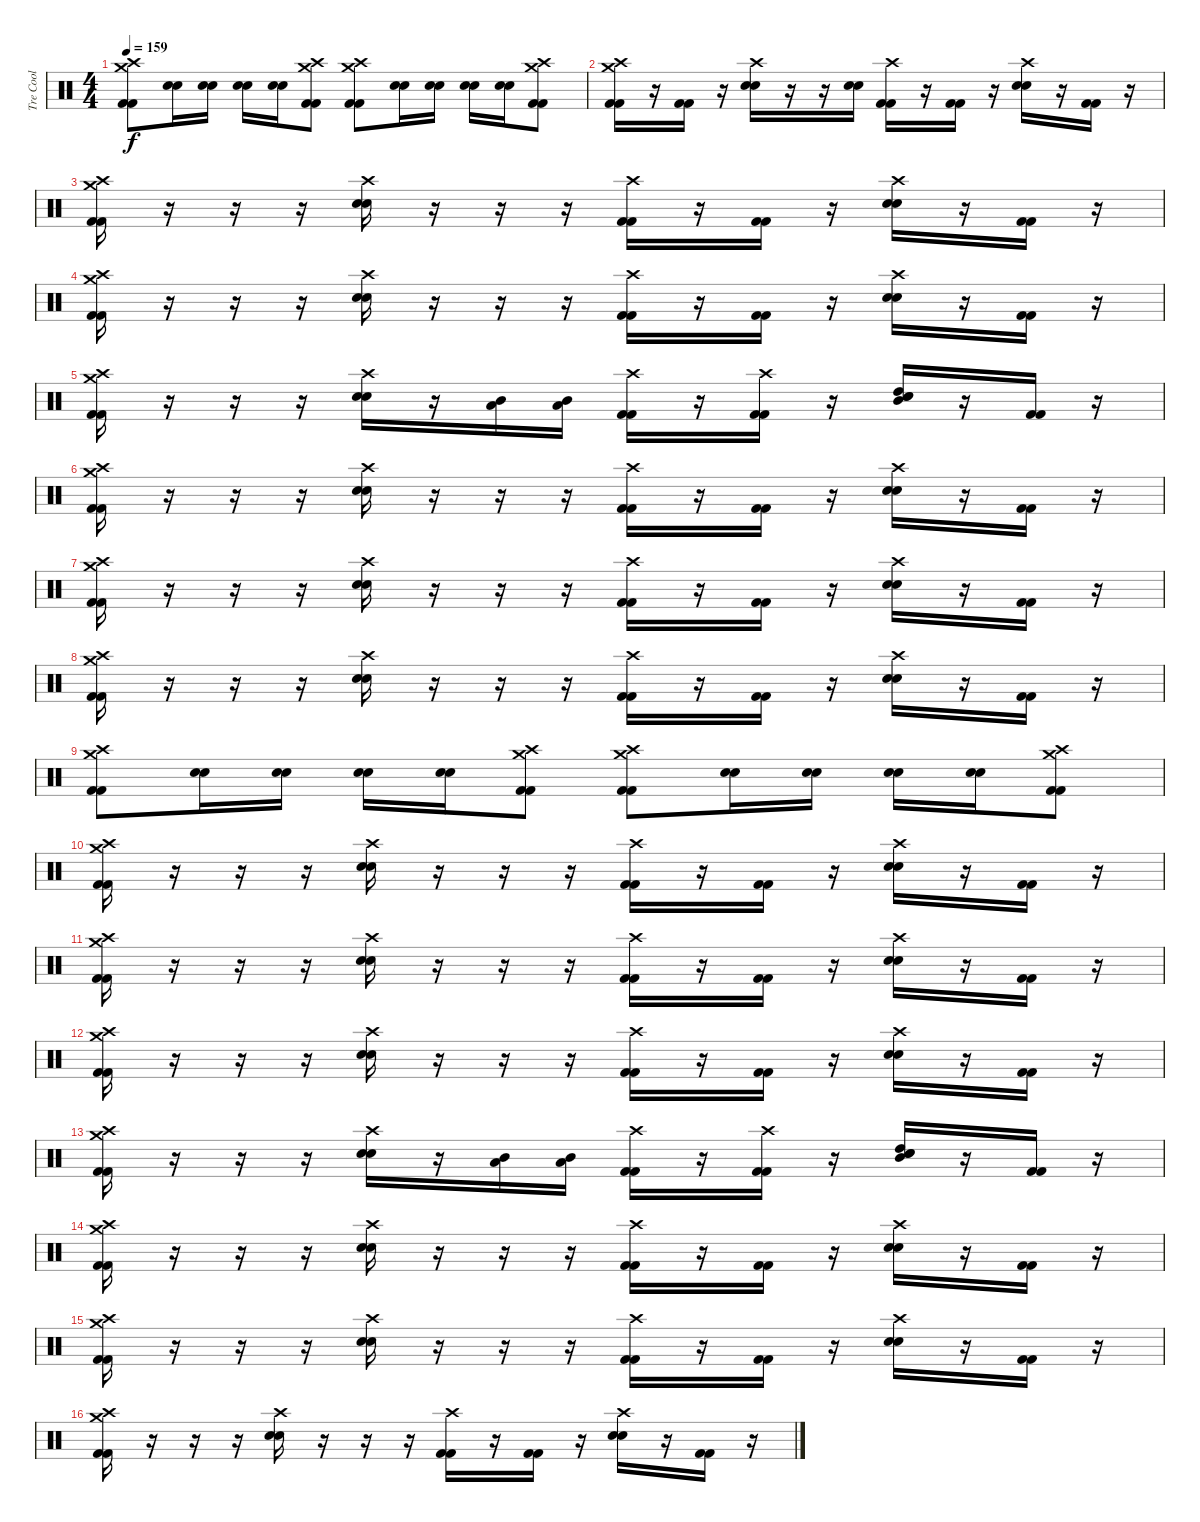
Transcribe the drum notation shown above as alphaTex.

\track ("Tre Cool" "Tre Cool") {instrument percussion}
\staff {score}
\articulation defaults
\ts (4 4)
\tempo 159
\clef neutral
\ks c
("Crash medium (hit)" "Crash high (hit)" "Kick (hit) 2" "Kick (hit) 2").8{dy f} ("Snare (hit) 2" "Snare (hit) 2").16 ("Snare (hit) 2" "Snare (hit) 2").16 ("Snare (hit) 2" "Snare (hit) 2").16 ("Snare (hit) 2" "Snare (hit) 2").16 ("Crash high (hit)" "Crash medium (hit)" "Kick (hit) 2" "Kick (hit) 2").8 ("Crash medium (hit)" "Crash high (hit)" "Kick (hit) 2" "Kick (hit) 2").8 ("Snare (hit) 2" "Snare (hit) 2").16 ("Snare (hit) 2" "Snare (hit) 2").16 ("Snare (hit) 2" "Snare (hit) 2").16 ("Snare (hit) 2" "Snare (hit) 2").16 ("Crash medium (hit)" "Crash high (hit)" "Kick (hit) 2" "Kick (hit) 2").8 |
("Crash high (hit)" "Crash medium (hit)" "Kick (hit) 2" "Kick (hit) 2").16 r.16 ("Kick (hit) 2" "Kick (hit) 2").16 r.16 ("Crash high (hit)" "Snare (hit) 2" "Snare (hit) 2").16 r.16 r.16 ("Snare (hit) 2" "Snare (hit) 2").16 ("Crash high (hit)" "Kick (hit) 2" "Kick (hit) 2").16 r.16 ("Kick (hit) 2" "Kick (hit) 2").16 r.16 ("Crash high (hit)" "Snare (hit) 2" "Snare (hit) 2").16 r.16 ("Kick (hit) 2" "Kick (hit) 2").16 r.16 |
("Crash high (hit)" "Crash medium (hit)" "Kick (hit) 2" "Kick (hit) 2").16 r.16 r.16 r.16 ("Crash high (hit)" "Snare (hit) 2" "Snare (hit) 2").16 r.16 r.16 r.16 ("Crash high (hit)" "Kick (hit) 2" "Kick (hit) 2").16 r.16 ("Kick (hit) 2" "Kick (hit) 2").16 r.16 ("Crash high (hit)" "Snare (hit) 2" "Snare (hit) 2").16 r.16 ("Kick (hit) 2" "Kick (hit) 2").16 r.16 |
("Crash high (hit)" "Crash medium (hit)" "Kick (hit) 2" "Kick (hit) 2").16 r.16 r.16 r.16 ("Crash high (hit)" "Snare (hit) 2" "Snare (hit) 2").16 r.16 r.16 r.16 ("Crash high (hit)" "Kick (hit) 2" "Kick (hit) 2").16 r.16 ("Kick (hit) 2" "Kick (hit) 2").16 r.16 ("Crash high (hit)" "Snare (hit) 2" "Snare (hit) 2").16 r.16 ("Kick (hit) 2" "Kick (hit) 2").16 r.16 |
("Crash high (hit)" "Crash medium (hit)" "Kick (hit) 2" "Kick (hit) 2").16 r.16 r.16 r.16 ("Crash high (hit)" "Snare (hit) 2" "Snare (hit) 2").16 r.16 ("Mid Tom (hit)" "Low Tom (hit)").16 ("Mid Tom (hit)" "Low Tom (hit)").16 ("Crash high (hit)" "Kick (hit) 2" "Kick (hit) 2").16 r.16 ("Crash high (hit)" "Kick (hit) 2" "Kick (hit) 2").16 r.16 ("Mid Tom (hit)" "High Tom (hit)" "Snare (hit) 2" "Snare (hit) 2").16 r.16 ("Kick (hit) 2" "Kick (hit) 2").16 r.16 |
("Crash high (hit)" "Crash medium (hit)" "Kick (hit) 2" "Kick (hit) 2").16 r.16 r.16 r.16 ("Crash high (hit)" "Snare (hit) 2" "Snare (hit) 2").16 r.16 r.16 r.16 ("Crash high (hit)" "Kick (hit) 2" "Kick (hit) 2").16 r.16 ("Kick (hit) 2" "Kick (hit) 2").16 r.16 ("Crash high (hit)" "Snare (hit) 2" "Snare (hit) 2").16 r.16 ("Kick (hit) 2" "Kick (hit) 2").16 r.16 |
("Crash high (hit)" "Crash medium (hit)" "Kick (hit) 2" "Kick (hit) 2").16 r.16 r.16 r.16 ("Crash high (hit)" "Snare (hit) 2" "Snare (hit) 2").16 r.16 r.16 r.16 ("Crash high (hit)" "Kick (hit) 2" "Kick (hit) 2").16 r.16 ("Kick (hit) 2" "Kick (hit) 2").16 r.16 ("Crash high (hit)" "Snare (hit) 2" "Snare (hit) 2").16 r.16 ("Kick (hit) 2" "Kick (hit) 2").16 r.16 |
("Crash high (hit)" "Crash medium (hit)" "Kick (hit) 2" "Kick (hit) 2").16 r.16 r.16 r.16 ("Crash high (hit)" "Snare (hit) 2" "Snare (hit) 2").16 r.16 r.16 r.16 ("Crash high (hit)" "Kick (hit) 2" "Kick (hit) 2").16 r.16 ("Kick (hit) 2" "Kick (hit) 2").16 r.16 ("Crash high (hit)" "Snare (hit) 2" "Snare (hit) 2").16 r.16 ("Kick (hit) 2" "Kick (hit) 2").16 r.16 |
("Crash medium (hit)" "Crash high (hit)" "Kick (hit) 2" "Kick (hit) 2").8 ("Snare (hit) 2" "Snare (hit) 2").16 ("Snare (hit) 2" "Snare (hit) 2").16 ("Snare (hit) 2" "Snare (hit) 2").16 ("Snare (hit) 2" "Snare (hit) 2").16 ("Crash high (hit)" "Crash medium (hit)" "Kick (hit) 2" "Kick (hit) 2").8 ("Crash medium (hit)" "Crash high (hit)" "Kick (hit) 2" "Kick (hit) 2").8 ("Snare (hit) 2" "Snare (hit) 2").16 ("Snare (hit) 2" "Snare (hit) 2").16 ("Snare (hit) 2" "Snare (hit) 2").16 ("Snare (hit) 2" "Snare (hit) 2").16 ("Crash medium (hit)" "Crash high (hit)" "Kick (hit) 2" "Kick (hit) 2").8 |
("Crash high (hit)" "Crash medium (hit)" "Kick (hit) 2" "Kick (hit) 2").16 r.16 r.16 r.16 ("Crash high (hit)" "Snare (hit) 2" "Snare (hit) 2").16 r.16 r.16 r.16 ("Crash high (hit)" "Kick (hit) 2" "Kick (hit) 2").16 r.16 ("Kick (hit) 2" "Kick (hit) 2").16 r.16 ("Crash high (hit)" "Snare (hit) 2" "Snare (hit) 2").16 r.16 ("Kick (hit) 2" "Kick (hit) 2").16 r.16 |
("Crash high (hit)" "Crash medium (hit)" "Kick (hit) 2" "Kick (hit) 2").16 r.16 r.16 r.16 ("Crash high (hit)" "Snare (hit) 2" "Snare (hit) 2").16 r.16 r.16 r.16 ("Crash high (hit)" "Kick (hit) 2" "Kick (hit) 2").16 r.16 ("Kick (hit) 2" "Kick (hit) 2").16 r.16 ("Crash high (hit)" "Snare (hit) 2" "Snare (hit) 2").16 r.16 ("Kick (hit) 2" "Kick (hit) 2").16 r.16 |
("Crash high (hit)" "Crash medium (hit)" "Kick (hit) 2" "Kick (hit) 2").16 r.16 r.16 r.16 ("Crash high (hit)" "Snare (hit) 2" "Snare (hit) 2").16 r.16 r.16 r.16 ("Crash high (hit)" "Kick (hit) 2" "Kick (hit) 2").16 r.16 ("Kick (hit) 2" "Kick (hit) 2").16 r.16 ("Crash high (hit)" "Snare (hit) 2" "Snare (hit) 2").16 r.16 ("Kick (hit) 2" "Kick (hit) 2").16 r.16 |
("Crash high (hit)" "Crash medium (hit)" "Kick (hit) 2" "Kick (hit) 2").16 r.16 r.16 r.16 ("Crash high (hit)" "Snare (hit) 2" "Snare (hit) 2").16 r.16 ("Mid Tom (hit)" "Low Tom (hit)").16 ("Mid Tom (hit)" "Low Tom (hit)").16 ("Crash high (hit)" "Kick (hit) 2" "Kick (hit) 2").16 r.16 ("Crash high (hit)" "Kick (hit) 2" "Kick (hit) 2").16 r.16 ("Mid Tom (hit)" "High Tom (hit)" "Snare (hit) 2" "Snare (hit) 2").16 r.16 ("Kick (hit) 2" "Kick (hit) 2").16 r.16 |
("Crash high (hit)" "Crash medium (hit)" "Kick (hit) 2" "Kick (hit) 2").16 r.16 r.16 r.16 ("Crash high (hit)" "Snare (hit) 2" "Snare (hit) 2").16 r.16 r.16 r.16 ("Crash high (hit)" "Kick (hit) 2" "Kick (hit) 2").16 r.16 ("Kick (hit) 2" "Kick (hit) 2").16 r.16 ("Crash high (hit)" "Snare (hit) 2" "Snare (hit) 2").16 r.16 ("Kick (hit) 2" "Kick (hit) 2").16 r.16 |
("Crash high (hit)" "Crash medium (hit)" "Kick (hit) 2" "Kick (hit) 2").16 r.16 r.16 r.16 ("Crash high (hit)" "Snare (hit) 2" "Snare (hit) 2").16 r.16 r.16 r.16 ("Crash high (hit)" "Kick (hit) 2" "Kick (hit) 2").16 r.16 ("Kick (hit) 2" "Kick (hit) 2").16 r.16 ("Crash high (hit)" "Snare (hit) 2" "Snare (hit) 2").16 r.16 ("Kick (hit) 2" "Kick (hit) 2").16 r.16 |
("Crash high (hit)" "Crash medium (hit)" "Kick (hit) 2" "Kick (hit) 2").16 r.16 r.16 r.16 ("Crash high (hit)" "Snare (hit) 2" "Snare (hit) 2").16 r.16 r.16 r.16 ("Crash high (hit)" "Kick (hit) 2" "Kick (hit) 2").16 r.16 ("Kick (hit) 2" "Kick (hit) 2").16 r.16 ("Crash high (hit)" "Snare (hit) 2" "Snare (hit) 2").16 r.16 ("Kick (hit) 2" "Kick (hit) 2").16 r.16
